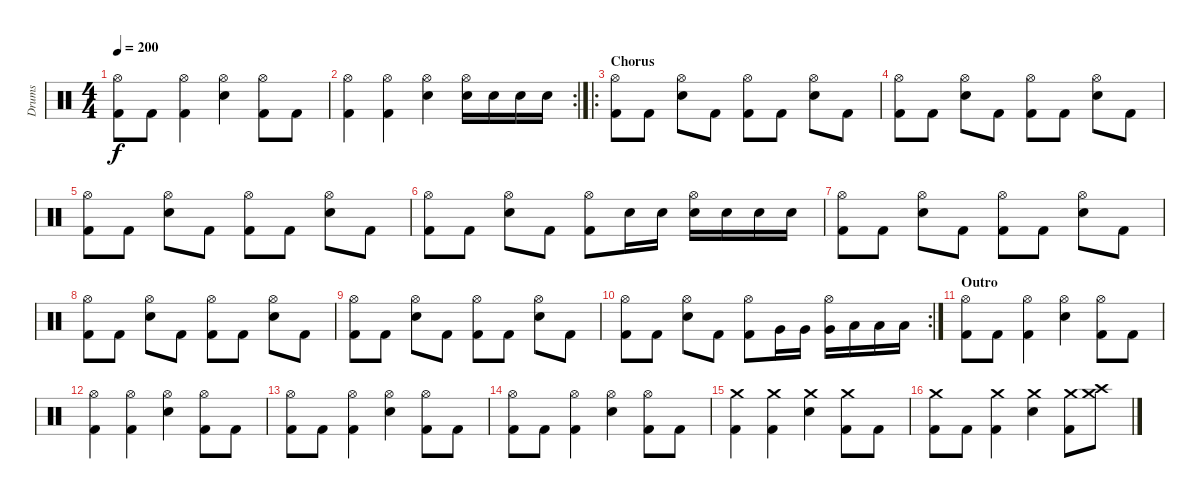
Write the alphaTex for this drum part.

\track ("Drums" "Drums") {instrument percussion}
\staff {score}
\articulation defaults
\ts (4 4)
\tempo 200
\clef neutral
\ks c
("Hi-Hat (open)" "Kick (hit) 2").8{dy f} "Kick (hit) 2".8 ("Hi-Hat (open)" "Kick (hit) 2").4 ("Hi-Hat (open)" "Snare (hit) 2").4 ("Hi-Hat (open)" "Kick (hit) 2").8 "Kick (hit) 2".8 |
\rc 2
("Hi-Hat (open)" "Kick (hit) 2").4 ("Hi-Hat (open)" "Kick (hit) 2").4 ("Hi-Hat (open)" "Snare (hit) 2").4 ("Hi-Hat (open)" "Snare (hit) 2").16 "Snare (hit) 2".16 "Snare (hit) 2".16 "Snare (hit) 2".16 |
\ro
\section ("" "Chorus")
("Hi-Hat (open)" "Kick (hit) 2").8 "Kick (hit) 2".8 ("Hi-Hat (open)" "Snare (hit) 2").8 "Kick (hit) 2".8 ("Hi-Hat (open)" "Kick (hit) 2").8 "Kick (hit) 2".8 ("Hi-Hat (open)" "Snare (hit) 2").8 "Kick (hit) 2".8 |
("Hi-Hat (open)" "Kick (hit) 2").8 "Kick (hit) 2".8 ("Hi-Hat (open)" "Snare (hit) 2").8 "Kick (hit) 2".8 ("Hi-Hat (open)" "Kick (hit) 2").8 "Kick (hit) 2".8 ("Hi-Hat (open)" "Snare (hit) 2").8 "Kick (hit) 2".8 |
("Hi-Hat (open)" "Kick (hit) 2").8 "Kick (hit) 2".8 ("Hi-Hat (open)" "Snare (hit) 2").8 "Kick (hit) 2".8 ("Hi-Hat (open)" "Kick (hit) 2").8 "Kick (hit) 2".8 ("Hi-Hat (open)" "Snare (hit) 2").8 "Kick (hit) 2".8 |
("Hi-Hat (open)" "Kick (hit) 2").8 "Kick (hit) 2".8 ("Hi-Hat (open)" "Snare (hit) 2").8 "Kick (hit) 2".8 ("Hi-Hat (open)" "Kick (hit) 2").8 "Snare (hit) 2".16 "Snare (hit) 2".16 ("Hi-Hat (open)" "Snare (hit) 2").16 "Snare (hit) 2".16 "Snare (hit) 2".16 "Snare (hit) 2".16 |
("Hi-Hat (open)" "Kick (hit) 2").8 "Kick (hit) 2".8 ("Hi-Hat (open)" "Snare (hit) 2").8 "Kick (hit) 2".8 ("Hi-Hat (open)" "Kick (hit) 2").8 "Kick (hit) 2".8 ("Hi-Hat (open)" "Snare (hit) 2").8 "Kick (hit) 2".8 |
("Hi-Hat (open)" "Kick (hit) 2").8 "Kick (hit) 2".8 ("Hi-Hat (open)" "Snare (hit) 2").8 "Kick (hit) 2".8 ("Hi-Hat (open)" "Kick (hit) 2").8 "Kick (hit) 2".8 ("Hi-Hat (open)" "Snare (hit) 2").8 "Kick (hit) 2".8 |
("Hi-Hat (open)" "Kick (hit) 2").8 "Kick (hit) 2".8 ("Hi-Hat (open)" "Snare (hit) 2").8 "Kick (hit) 2".8 ("Hi-Hat (open)" "Kick (hit) 2").8 "Kick (hit) 2".8 ("Hi-Hat (open)" "Snare (hit) 2").8 "Kick (hit) 2".8 |
\rc 2
("Hi-Hat (open)" "Kick (hit) 2").8 "Kick (hit) 2".8 ("Hi-Hat (open)" "Snare (hit) 2").8 "Kick (hit) 2".8 ("Hi-Hat (open)" "Kick (hit) 2").8 "Very Low Tom (hit)".16 "Very Low Tom (hit)".16 ("Hi-Hat (open)" "Very Low Tom (hit)").16 "Low Floor Tom (hit)".16 "Low Floor Tom (hit)".16 "Low Floor Tom (hit)".16 |
\section ("" "Outro")
("Hi-Hat (open)" "Kick (hit) 2").8 "Kick (hit) 2".8 ("Hi-Hat (open)" "Kick (hit) 2").4 ("Hi-Hat (open)" "Snare (hit) 2").4 ("Hi-Hat (open)" "Kick (hit) 2").8 "Kick (hit) 2".8 |
("Hi-Hat (open)" "Kick (hit) 2").4 ("Hi-Hat (open)" "Kick (hit) 2").4 ("Hi-Hat (open)" "Snare (hit) 2").4 ("Hi-Hat (open)" "Kick (hit) 2").8 "Kick (hit) 2".8 |
("Hi-Hat (open)" "Kick (hit) 2").8 "Kick (hit) 2".8 ("Hi-Hat (open)" "Kick (hit) 2").4 ("Hi-Hat (open)" "Snare (hit) 2").4 ("Hi-Hat (open)" "Kick (hit) 2").8 "Kick (hit) 2".8 |
("Hi-Hat (open)" "Kick (hit) 2").8 "Kick (hit) 2".8 ("Hi-Hat (open)" "Kick (hit) 2").4 ("Hi-Hat (open)" "Snare (hit) 2").4 ("Hi-Hat (open)" "Kick (hit) 2").8 "Kick (hit) 2".8 |
("Crash medium (hit)" "Kick (hit) 2").4 ("Crash medium (hit)" "Kick (hit) 2").4 ("Crash medium (hit)" "Snare (hit) 2").4 ("Crash medium (hit)" "Kick (hit) 2").8 "Kick (hit) 2".8 |
("Crash medium (hit)" "Kick (hit) 2").8 "Kick (hit) 2".8 ("Crash medium (hit)" "Kick (hit) 2").4 ("Crash medium (hit)" "Snare (hit) 2").4 ("Crash medium (hit)" "Kick (hit) 2").8 ("Crash medium (hit)" "Crash high (hit)").8
